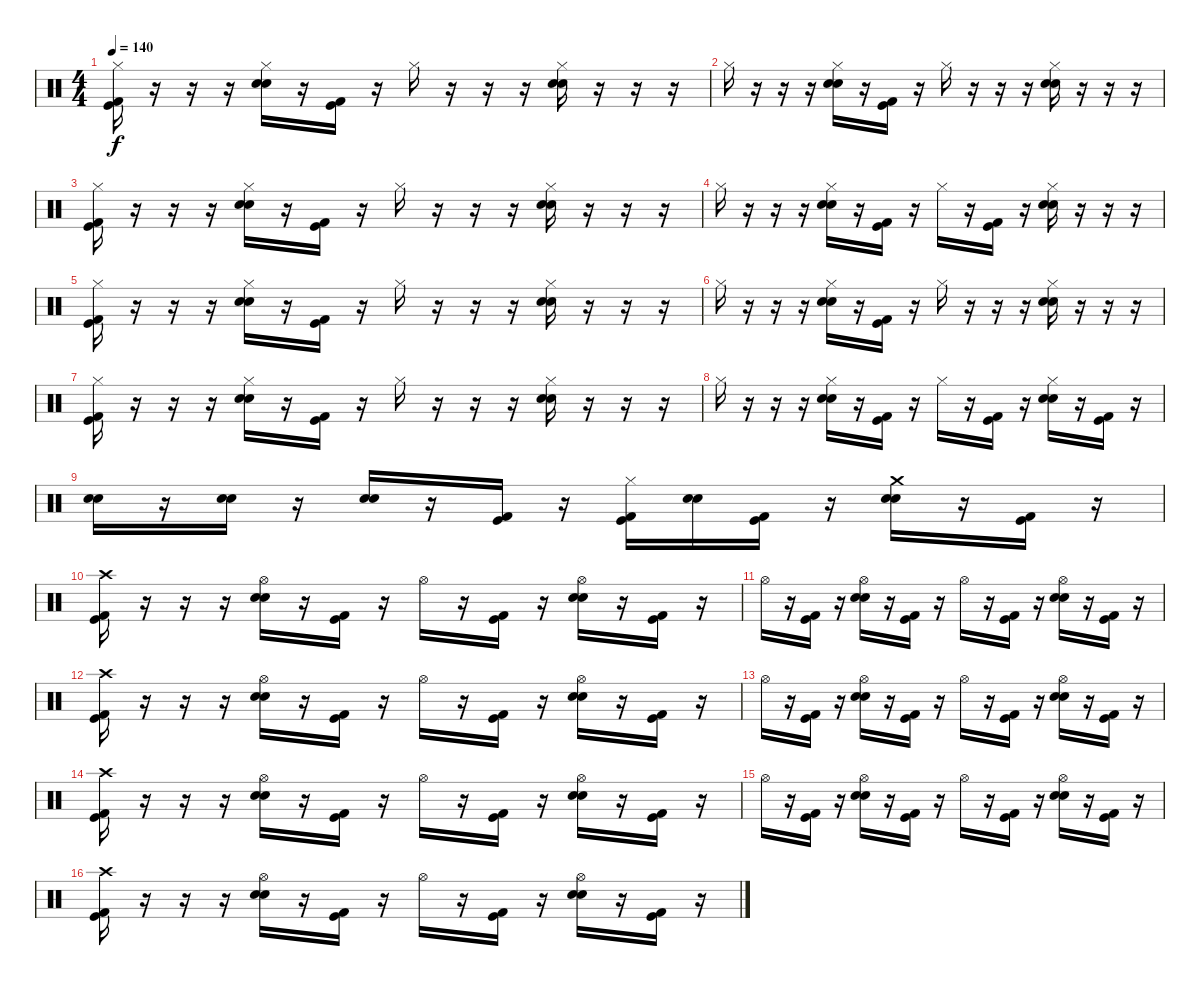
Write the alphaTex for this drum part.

\track "" {instrument percussion}
\staff {score}
\articulation defaults
\ts (4 4)
\tempo 140
\clef neutral
\ks c
("Hi-Hat (closed)" "Kick (hit)" "Kick (hit) 2").16{dy f} r.16 r.16 r.16 ("Hi-Hat (closed)" "Electric Snare (hit)" "Electric Snare (hit)").16 r.16 ("Kick (hit)" "Kick (hit) 2").16 r.16 "Hi-Hat (closed)".16 r.16 r.16 r.16 ("Hi-Hat (closed)" "Electric Snare (hit)" "Electric Snare (hit)").16 r.16 r.16 r.16 |
"Hi-Hat (closed)".16 r.16 r.16 r.16 ("Hi-Hat (closed)" "Electric Snare (hit)" "Electric Snare (hit)").16 r.16 ("Kick (hit)" "Kick (hit) 2").16 r.16 "Hi-Hat (closed)".16 r.16 r.16 r.16 ("Hi-Hat (closed)" "Electric Snare (hit)" "Electric Snare (hit)").16 r.16 r.16 r.16 |
("Hi-Hat (closed)" "Kick (hit)" "Kick (hit) 2").16 r.16 r.16 r.16 ("Hi-Hat (closed)" "Electric Snare (hit)" "Electric Snare (hit)").16 r.16 ("Kick (hit)" "Kick (hit) 2").16 r.16 "Hi-Hat (closed)".16 r.16 r.16 r.16 ("Hi-Hat (closed)" "Electric Snare (hit)" "Electric Snare (hit)").16 r.16 r.16 r.16 |
"Hi-Hat (closed)".16 r.16 r.16 r.16 ("Hi-Hat (closed)" "Electric Snare (hit)" "Electric Snare (hit)").16 r.16 ("Kick (hit)" "Kick (hit) 2").16 r.16 "Hi-Hat (closed)".16 r.16 ("Kick (hit)" "Kick (hit) 2").16 r.16 ("Hi-Hat (closed)" "Electric Snare (hit)" "Electric Snare (hit)").16 r.16 r.16 r.16 |
("Hi-Hat (closed)" "Kick (hit)" "Kick (hit) 2").16 r.16 r.16 r.16 ("Hi-Hat (closed)" "Electric Snare (hit)" "Electric Snare (hit)").16 r.16 ("Kick (hit)" "Kick (hit) 2").16 r.16 "Hi-Hat (closed)".16 r.16 r.16 r.16 ("Hi-Hat (closed)" "Electric Snare (hit)" "Electric Snare (hit)").16 r.16 r.16 r.16 |
"Hi-Hat (closed)".16 r.16 r.16 r.16 ("Hi-Hat (closed)" "Electric Snare (hit)" "Electric Snare (hit)").16 r.16 ("Kick (hit)" "Kick (hit) 2").16 r.16 "Hi-Hat (closed)".16 r.16 r.16 r.16 ("Hi-Hat (closed)" "Electric Snare (hit)" "Electric Snare (hit)").16 r.16 r.16 r.16 |
("Hi-Hat (closed)" "Kick (hit)" "Kick (hit) 2").16 r.16 r.16 r.16 ("Hi-Hat (closed)" "Electric Snare (hit)" "Electric Snare (hit)").16 r.16 ("Kick (hit)" "Kick (hit) 2").16 r.16 "Hi-Hat (closed)".16 r.16 r.16 r.16 ("Hi-Hat (closed)" "Electric Snare (hit)" "Electric Snare (hit)").16 r.16 r.16 r.16 |
"Hi-Hat (closed)".16 r.16 r.16 r.16 ("Hi-Hat (closed)" "Electric Snare (hit)" "Electric Snare (hit)").16 r.16 ("Kick (hit)" "Kick (hit) 2").16 r.16 "Hi-Hat (closed)".16 r.16 ("Kick (hit)" "Kick (hit) 2").16 r.16 ("Hi-Hat (closed)" "Electric Snare (hit)" "Electric Snare (hit)").16 r.16 ("Kick (hit)" "Kick (hit) 2").16 r.16 |
("Electric Snare (hit)" "Electric Snare (hit)").16 r.16 ("Electric Snare (hit)" "Electric Snare (hit)").16 r.16 ("Electric Snare (hit)" "Electric Snare (hit)").16 r.16 ("Kick (hit)" "Kick (hit) 2").16 r.16 ("Hi-Hat (closed)" "Kick (hit)" "Kick (hit) 2").16 ("Electric Snare (hit)" "Electric Snare (hit)").16 ("Kick (hit)" "Kick (hit) 2").16 r.16 ("Crash medium (hit)" "Electric Snare (hit)" "Electric Snare (hit)").16 r.16 ("Kick (hit)" "Kick (hit) 2").16 r.16 |
("Crash high (hit)" "Kick (hit)" "Kick (hit) 2").16 r.16 r.16 r.16 ("Hi-Hat (open)" "Electric Snare (hit)" "Electric Snare (hit)").16 r.16 ("Kick (hit)" "Kick (hit) 2").16 r.16 "Hi-Hat (open)".16 r.16 ("Kick (hit)" "Kick (hit) 2").16 r.16 ("Hi-Hat (open)" "Electric Snare (hit)" "Electric Snare (hit)").16 r.16 ("Kick (hit)" "Kick (hit) 2").16 r.16 |
"Hi-Hat (open)".16 r.16 ("Kick (hit)" "Kick (hit) 2").16 r.16 ("Hi-Hat (open)" "Electric Snare (hit)" "Electric Snare (hit)").16 r.16 ("Kick (hit)" "Kick (hit) 2").16 r.16 "Hi-Hat (open)".16 r.16 ("Kick (hit)" "Kick (hit) 2").16 r.16 ("Hi-Hat (open)" "Electric Snare (hit)" "Electric Snare (hit)").16 r.16 ("Kick (hit)" "Kick (hit) 2").16 r.16 |
("Crash high (hit)" "Kick (hit)" "Kick (hit) 2").16 r.16 r.16 r.16 ("Hi-Hat (open)" "Electric Snare (hit)" "Electric Snare (hit)").16 r.16 ("Kick (hit)" "Kick (hit) 2").16 r.16 "Hi-Hat (open)".16 r.16 ("Kick (hit)" "Kick (hit) 2").16 r.16 ("Hi-Hat (open)" "Electric Snare (hit)" "Electric Snare (hit)").16 r.16 ("Kick (hit)" "Kick (hit) 2").16 r.16 |
"Hi-Hat (open)".16 r.16 ("Kick (hit)" "Kick (hit) 2").16 r.16 ("Hi-Hat (open)" "Electric Snare (hit)" "Electric Snare (hit)").16 r.16 ("Kick (hit)" "Kick (hit) 2").16 r.16 "Hi-Hat (open)".16 r.16 ("Kick (hit)" "Kick (hit) 2").16 r.16 ("Hi-Hat (open)" "Electric Snare (hit)" "Electric Snare (hit)").16 r.16 ("Kick (hit)" "Kick (hit) 2").16 r.16 |
("Crash high (hit)" "Kick (hit)" "Kick (hit) 2").16 r.16 r.16 r.16 ("Hi-Hat (open)" "Electric Snare (hit)" "Electric Snare (hit)").16 r.16 ("Kick (hit)" "Kick (hit) 2").16 r.16 "Hi-Hat (open)".16 r.16 ("Kick (hit)" "Kick (hit) 2").16 r.16 ("Hi-Hat (open)" "Electric Snare (hit)" "Electric Snare (hit)").16 r.16 ("Kick (hit)" "Kick (hit) 2").16 r.16 |
"Hi-Hat (open)".16 r.16 ("Kick (hit)" "Kick (hit) 2").16 r.16 ("Hi-Hat (open)" "Electric Snare (hit)" "Electric Snare (hit)").16 r.16 ("Kick (hit)" "Kick (hit) 2").16 r.16 "Hi-Hat (open)".16 r.16 ("Kick (hit)" "Kick (hit) 2").16 r.16 ("Hi-Hat (open)" "Electric Snare (hit)" "Electric Snare (hit)").16 r.16 ("Kick (hit)" "Kick (hit) 2").16 r.16 |
("Crash high (hit)" "Kick (hit)" "Kick (hit) 2").16 r.16 r.16 r.16 ("Hi-Hat (open)" "Electric Snare (hit)" "Electric Snare (hit)").16 r.16 ("Kick (hit)" "Kick (hit) 2").16 r.16 "Hi-Hat (open)".16 r.16 ("Kick (hit)" "Kick (hit) 2").16 r.16 ("Hi-Hat (open)" "Electric Snare (hit)" "Electric Snare (hit)").16 r.16 ("Kick (hit)" "Kick (hit) 2").16 r.16
